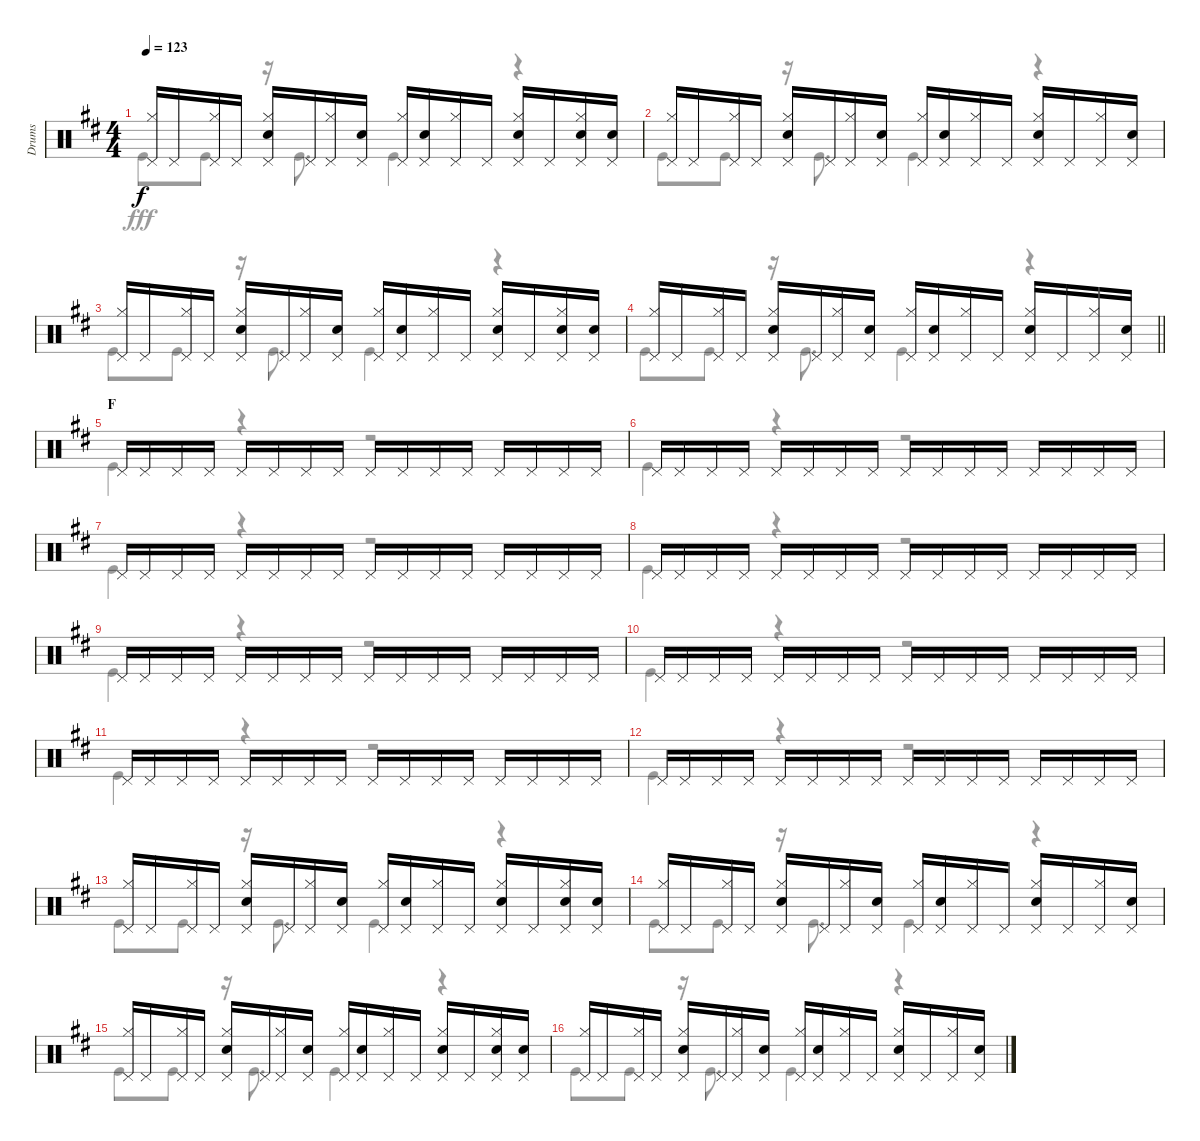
\track ("Drums" "Drums") {instrument percussion}
\staff {score}
\articulation defaults
\voice
\ts (4 4)
\tempo 123
\clef neutral
\ks d
("Hi-Hat (closed)" "Pedal Hi-Hat (hit)").16{dy f} "Pedal Hi-Hat (hit)".16 ("Hi-Hat (closed)" "Pedal Hi-Hat (hit)").16 "Pedal Hi-Hat (hit)".16 ("Hi-Hat (closed)" "Snare (hit) 2" "Pedal Hi-Hat (hit)").16 "Pedal Hi-Hat (hit)".16 ("Hi-Hat (closed)" "Pedal Hi-Hat (hit)").16 ("Pedal Hi-Hat (hit)" "Snare (hit) 2").16 ("Hi-Hat (closed)" "Pedal Hi-Hat (hit)").16 ("Pedal Hi-Hat (hit)" "Snare (hit) 2").16 ("Hi-Hat (closed)" "Pedal Hi-Hat (hit)").16 "Pedal Hi-Hat (hit)".16 ("Hi-Hat (closed)" "Snare (hit) 2" "Pedal Hi-Hat (hit)").16 "Pedal Hi-Hat (hit)".16 ("Hi-Hat (closed)" "Snare (hit) 2" "Pedal Hi-Hat (hit)").16 ("Pedal Hi-Hat (hit)" "Snare (hit) 2").16 |
("Hi-Hat (closed)" "Pedal Hi-Hat (hit)").16 "Pedal Hi-Hat (hit)".16 ("Hi-Hat (closed)" "Pedal Hi-Hat (hit)").16 "Pedal Hi-Hat (hit)".16 ("Hi-Hat (closed)" "Snare (hit) 2" "Pedal Hi-Hat (hit)").16 "Pedal Hi-Hat (hit)".16 ("Hi-Hat (closed)" "Pedal Hi-Hat (hit)").16 ("Pedal Hi-Hat (hit)" "Snare (hit) 2").16 ("Hi-Hat (closed)" "Pedal Hi-Hat (hit)").16 ("Pedal Hi-Hat (hit)" "Snare (hit) 2").16 ("Hi-Hat (closed)" "Pedal Hi-Hat (hit)").16 "Pedal Hi-Hat (hit)".16 ("Hi-Hat (closed)" "Snare (hit) 2" "Pedal Hi-Hat (hit)").16 "Pedal Hi-Hat (hit)".16 ("Hi-Hat (closed)" "Pedal Hi-Hat (hit)").16 ("Pedal Hi-Hat (hit)" "Snare (hit) 2").16 |
("Hi-Hat (closed)" "Pedal Hi-Hat (hit)").16 "Pedal Hi-Hat (hit)".16 ("Hi-Hat (closed)" "Pedal Hi-Hat (hit)").16 "Pedal Hi-Hat (hit)".16 ("Hi-Hat (closed)" "Snare (hit) 2" "Pedal Hi-Hat (hit)").16 "Pedal Hi-Hat (hit)".16 ("Hi-Hat (closed)" "Pedal Hi-Hat (hit)").16 ("Pedal Hi-Hat (hit)" "Snare (hit) 2").16 ("Hi-Hat (closed)" "Pedal Hi-Hat (hit)").16 ("Pedal Hi-Hat (hit)" "Snare (hit) 2").16 ("Hi-Hat (closed)" "Pedal Hi-Hat (hit)").16 "Pedal Hi-Hat (hit)".16 ("Hi-Hat (closed)" "Snare (hit) 2" "Pedal Hi-Hat (hit)").16 "Pedal Hi-Hat (hit)".16 ("Hi-Hat (closed)" "Snare (hit) 2" "Pedal Hi-Hat (hit)").16 ("Pedal Hi-Hat (hit)" "Snare (hit) 2").16 |
\barLineRight lightlight
("Hi-Hat (closed)" "Pedal Hi-Hat (hit)").16 "Pedal Hi-Hat (hit)".16 ("Hi-Hat (closed)" "Pedal Hi-Hat (hit)").16 "Pedal Hi-Hat (hit)".16 ("Hi-Hat (closed)" "Snare (hit) 2" "Pedal Hi-Hat (hit)").16 "Pedal Hi-Hat (hit)".16 ("Hi-Hat (closed)" "Pedal Hi-Hat (hit)").16 ("Pedal Hi-Hat (hit)" "Snare (hit) 2").16 ("Hi-Hat (closed)" "Pedal Hi-Hat (hit)").16 ("Pedal Hi-Hat (hit)" "Snare (hit) 2").16 ("Hi-Hat (closed)" "Pedal Hi-Hat (hit)").16 "Pedal Hi-Hat (hit)".16 ("Hi-Hat (closed)" "Snare (hit) 2" "Pedal Hi-Hat (hit)").16 "Pedal Hi-Hat (hit)".16 ("Hi-Hat (closed)" "Pedal Hi-Hat (hit)").16 ("Pedal Hi-Hat (hit)" "Snare (hit) 2").16 |
\section ("" "F")
"Pedal Hi-Hat (hit)".16 "Pedal Hi-Hat (hit)".16 "Pedal Hi-Hat (hit)".16 "Pedal Hi-Hat (hit)".16 "Pedal Hi-Hat (hit)".16 "Pedal Hi-Hat (hit)".16 "Pedal Hi-Hat (hit)".16 "Pedal Hi-Hat (hit)".16 "Pedal Hi-Hat (hit)".16 "Pedal Hi-Hat (hit)".16 "Pedal Hi-Hat (hit)".16 "Pedal Hi-Hat (hit)".16 "Pedal Hi-Hat (hit)".16 "Pedal Hi-Hat (hit)".16 "Pedal Hi-Hat (hit)".16 "Pedal Hi-Hat (hit)".16 |
"Pedal Hi-Hat (hit)".16 "Pedal Hi-Hat (hit)".16 "Pedal Hi-Hat (hit)".16 "Pedal Hi-Hat (hit)".16 "Pedal Hi-Hat (hit)".16 "Pedal Hi-Hat (hit)".16 "Pedal Hi-Hat (hit)".16 "Pedal Hi-Hat (hit)".16 "Pedal Hi-Hat (hit)".16 "Pedal Hi-Hat (hit)".16 "Pedal Hi-Hat (hit)".16 "Pedal Hi-Hat (hit)".16 "Pedal Hi-Hat (hit)".16 "Pedal Hi-Hat (hit)".16 "Pedal Hi-Hat (hit)".16 "Pedal Hi-Hat (hit)".16 |
"Pedal Hi-Hat (hit)".16 "Pedal Hi-Hat (hit)".16 "Pedal Hi-Hat (hit)".16 "Pedal Hi-Hat (hit)".16 "Pedal Hi-Hat (hit)".16 "Pedal Hi-Hat (hit)".16 "Pedal Hi-Hat (hit)".16 "Pedal Hi-Hat (hit)".16 "Pedal Hi-Hat (hit)".16 "Pedal Hi-Hat (hit)".16 "Pedal Hi-Hat (hit)".16 "Pedal Hi-Hat (hit)".16 "Pedal Hi-Hat (hit)".16 "Pedal Hi-Hat (hit)".16 "Pedal Hi-Hat (hit)".16 "Pedal Hi-Hat (hit)".16 |
"Pedal Hi-Hat (hit)".16 "Pedal Hi-Hat (hit)".16 "Pedal Hi-Hat (hit)".16 "Pedal Hi-Hat (hit)".16 "Pedal Hi-Hat (hit)".16 "Pedal Hi-Hat (hit)".16 "Pedal Hi-Hat (hit)".16 "Pedal Hi-Hat (hit)".16 "Pedal Hi-Hat (hit)".16 "Pedal Hi-Hat (hit)".16 "Pedal Hi-Hat (hit)".16 "Pedal Hi-Hat (hit)".16 "Pedal Hi-Hat (hit)".16 "Pedal Hi-Hat (hit)".16 "Pedal Hi-Hat (hit)".16 "Pedal Hi-Hat (hit)".16 |
"Pedal Hi-Hat (hit)".16 "Pedal Hi-Hat (hit)".16 "Pedal Hi-Hat (hit)".16 "Pedal Hi-Hat (hit)".16 "Pedal Hi-Hat (hit)".16 "Pedal Hi-Hat (hit)".16 "Pedal Hi-Hat (hit)".16 "Pedal Hi-Hat (hit)".16 "Pedal Hi-Hat (hit)".16 "Pedal Hi-Hat (hit)".16 "Pedal Hi-Hat (hit)".16 "Pedal Hi-Hat (hit)".16 "Pedal Hi-Hat (hit)".16 "Pedal Hi-Hat (hit)".16 "Pedal Hi-Hat (hit)".16 "Pedal Hi-Hat (hit)".16 |
"Pedal Hi-Hat (hit)".16 "Pedal Hi-Hat (hit)".16 "Pedal Hi-Hat (hit)".16 "Pedal Hi-Hat (hit)".16 "Pedal Hi-Hat (hit)".16 "Pedal Hi-Hat (hit)".16 "Pedal Hi-Hat (hit)".16 "Pedal Hi-Hat (hit)".16 "Pedal Hi-Hat (hit)".16 "Pedal Hi-Hat (hit)".16 "Pedal Hi-Hat (hit)".16 "Pedal Hi-Hat (hit)".16 "Pedal Hi-Hat (hit)".16 "Pedal Hi-Hat (hit)".16 "Pedal Hi-Hat (hit)".16 "Pedal Hi-Hat (hit)".16 |
"Pedal Hi-Hat (hit)".16 "Pedal Hi-Hat (hit)".16 "Pedal Hi-Hat (hit)".16 "Pedal Hi-Hat (hit)".16 "Pedal Hi-Hat (hit)".16 "Pedal Hi-Hat (hit)".16 "Pedal Hi-Hat (hit)".16 "Pedal Hi-Hat (hit)".16 "Pedal Hi-Hat (hit)".16 "Pedal Hi-Hat (hit)".16 "Pedal Hi-Hat (hit)".16 "Pedal Hi-Hat (hit)".16 "Pedal Hi-Hat (hit)".16 "Pedal Hi-Hat (hit)".16 "Pedal Hi-Hat (hit)".16 "Pedal Hi-Hat (hit)".16 |
"Pedal Hi-Hat (hit)".16 "Pedal Hi-Hat (hit)".16 "Pedal Hi-Hat (hit)".16 "Pedal Hi-Hat (hit)".16 "Pedal Hi-Hat (hit)".16 "Pedal Hi-Hat (hit)".16 "Pedal Hi-Hat (hit)".16 "Pedal Hi-Hat (hit)".16 "Pedal Hi-Hat (hit)".16 "Pedal Hi-Hat (hit)".16 "Pedal Hi-Hat (hit)".16 "Pedal Hi-Hat (hit)".16 "Pedal Hi-Hat (hit)".16 "Pedal Hi-Hat (hit)".16 "Pedal Hi-Hat (hit)".16 "Pedal Hi-Hat (hit)".16 |
("Hi-Hat (closed)" "Pedal Hi-Hat (hit)").16 "Pedal Hi-Hat (hit)".16 ("Hi-Hat (closed)" "Pedal Hi-Hat (hit)").16 "Pedal Hi-Hat (hit)".16 ("Hi-Hat (closed)" "Snare (hit) 2" "Pedal Hi-Hat (hit)").16 "Pedal Hi-Hat (hit)".16 ("Hi-Hat (closed)" "Pedal Hi-Hat (hit)").16 ("Pedal Hi-Hat (hit)" "Snare (hit) 2").16 ("Hi-Hat (closed)" "Pedal Hi-Hat (hit)").16 ("Pedal Hi-Hat (hit)" "Snare (hit) 2").16 ("Hi-Hat (closed)" "Pedal Hi-Hat (hit)").16 "Pedal Hi-Hat (hit)".16 ("Hi-Hat (closed)" "Snare (hit) 2" "Pedal Hi-Hat (hit)").16 "Pedal Hi-Hat (hit)".16 ("Hi-Hat (closed)" "Snare (hit) 2" "Pedal Hi-Hat (hit)").16 ("Pedal Hi-Hat (hit)" "Snare (hit) 2").16 |
("Hi-Hat (closed)" "Pedal Hi-Hat (hit)").16 "Pedal Hi-Hat (hit)".16 ("Hi-Hat (closed)" "Pedal Hi-Hat (hit)").16 "Pedal Hi-Hat (hit)".16 ("Hi-Hat (closed)" "Snare (hit) 2" "Pedal Hi-Hat (hit)").16 "Pedal Hi-Hat (hit)".16 ("Hi-Hat (closed)" "Pedal Hi-Hat (hit)").16 ("Pedal Hi-Hat (hit)" "Snare (hit) 2").16 ("Hi-Hat (closed)" "Pedal Hi-Hat (hit)").16 ("Pedal Hi-Hat (hit)" "Snare (hit) 2").16 ("Hi-Hat (closed)" "Pedal Hi-Hat (hit)").16 "Pedal Hi-Hat (hit)".16 ("Hi-Hat (closed)" "Snare (hit) 2" "Pedal Hi-Hat (hit)").16 "Pedal Hi-Hat (hit)".16 ("Hi-Hat (closed)" "Pedal Hi-Hat (hit)").16 ("Pedal Hi-Hat (hit)" "Snare (hit) 2").16 |
("Hi-Hat (closed)" "Pedal Hi-Hat (hit)").16 "Pedal Hi-Hat (hit)".16 ("Hi-Hat (closed)" "Pedal Hi-Hat (hit)").16 "Pedal Hi-Hat (hit)".16 ("Hi-Hat (closed)" "Snare (hit) 2" "Pedal Hi-Hat (hit)").16 "Pedal Hi-Hat (hit)".16 ("Hi-Hat (closed)" "Pedal Hi-Hat (hit)").16 ("Pedal Hi-Hat (hit)" "Snare (hit) 2").16 ("Hi-Hat (closed)" "Pedal Hi-Hat (hit)").16 ("Pedal Hi-Hat (hit)" "Snare (hit) 2").16 ("Hi-Hat (closed)" "Pedal Hi-Hat (hit)").16 "Pedal Hi-Hat (hit)".16 ("Hi-Hat (closed)" "Snare (hit) 2" "Pedal Hi-Hat (hit)").16 "Pedal Hi-Hat (hit)".16 ("Hi-Hat (closed)" "Snare (hit) 2" "Pedal Hi-Hat (hit)").16 ("Pedal Hi-Hat (hit)" "Snare (hit) 2").16 |
("Hi-Hat (closed)" "Pedal Hi-Hat (hit)").16 "Pedal Hi-Hat (hit)".16 ("Hi-Hat (closed)" "Pedal Hi-Hat (hit)").16 "Pedal Hi-Hat (hit)".16 ("Hi-Hat (closed)" "Snare (hit) 2" "Pedal Hi-Hat (hit)").16 "Pedal Hi-Hat (hit)".16 ("Hi-Hat (closed)" "Pedal Hi-Hat (hit)").16 ("Pedal Hi-Hat (hit)" "Snare (hit) 2").16 ("Hi-Hat (closed)" "Pedal Hi-Hat (hit)").16 ("Pedal Hi-Hat (hit)" "Snare (hit) 2").16 ("Hi-Hat (closed)" "Pedal Hi-Hat (hit)").16 "Pedal Hi-Hat (hit)".16 ("Hi-Hat (closed)" "Snare (hit) 2" "Pedal Hi-Hat (hit)").16 "Pedal Hi-Hat (hit)".16 ("Hi-Hat (closed)" "Pedal Hi-Hat (hit)").16 ("Pedal Hi-Hat (hit)" "Snare (hit) 2").16
\voice
\clef neutral
\ottava regular
\simile none
\ks d "Kick (hit)".8{dy fff} "Kick (hit)".8
r.16 "Kick (hit)".8{d} "Kick (hit)".4 r.4 |
"Kick (hit)".8 "Kick (hit)".8 r.16 "Kick (hit)".8{d} "Kick (hit)".4 r.4 |
"Kick (hit)".8 "Kick (hit)".8 r.16 "Kick (hit)".8{d} "Kick (hit)".4 r.4 |
\barLineRight lightlight "Kick (hit)".8 "Kick (hit)".8
r.16 "Kick (hit)".8{d} "Kick (hit)".4 r.4 |
"Kick (hit)".4 r.4 r.2 |
"Kick (hit)".4 r.4 r.2 |
"Kick (hit)".4 r.4 r.2 |
"Kick (hit)".4 r.4 r.2 |
"Kick (hit)".4 r.4 r.2 |
"Kick (hit)".4 r.4 r.2 |
"Kick (hit)".4 r.4 r.2 |
"Kick (hit)".4 r.4 r.2 |
"Kick (hit)".8 "Kick (hit)".8 r.16 "Kick (hit)".8{d} "Kick (hit)".4 r.4 |
"Kick (hit)".8 "Kick (hit)".8 r.16 "Kick (hit)".8{d} "Kick (hit)".4 r.4 |
"Kick (hit)".8 "Kick (hit)".8 r.16 "Kick (hit)".8{d} "Kick (hit)".4 r.4 |
"Kick (hit)".8 "Kick (hit)".8 r.16 "Kick (hit)".8{d} "Kick (hit)".4 r.4
